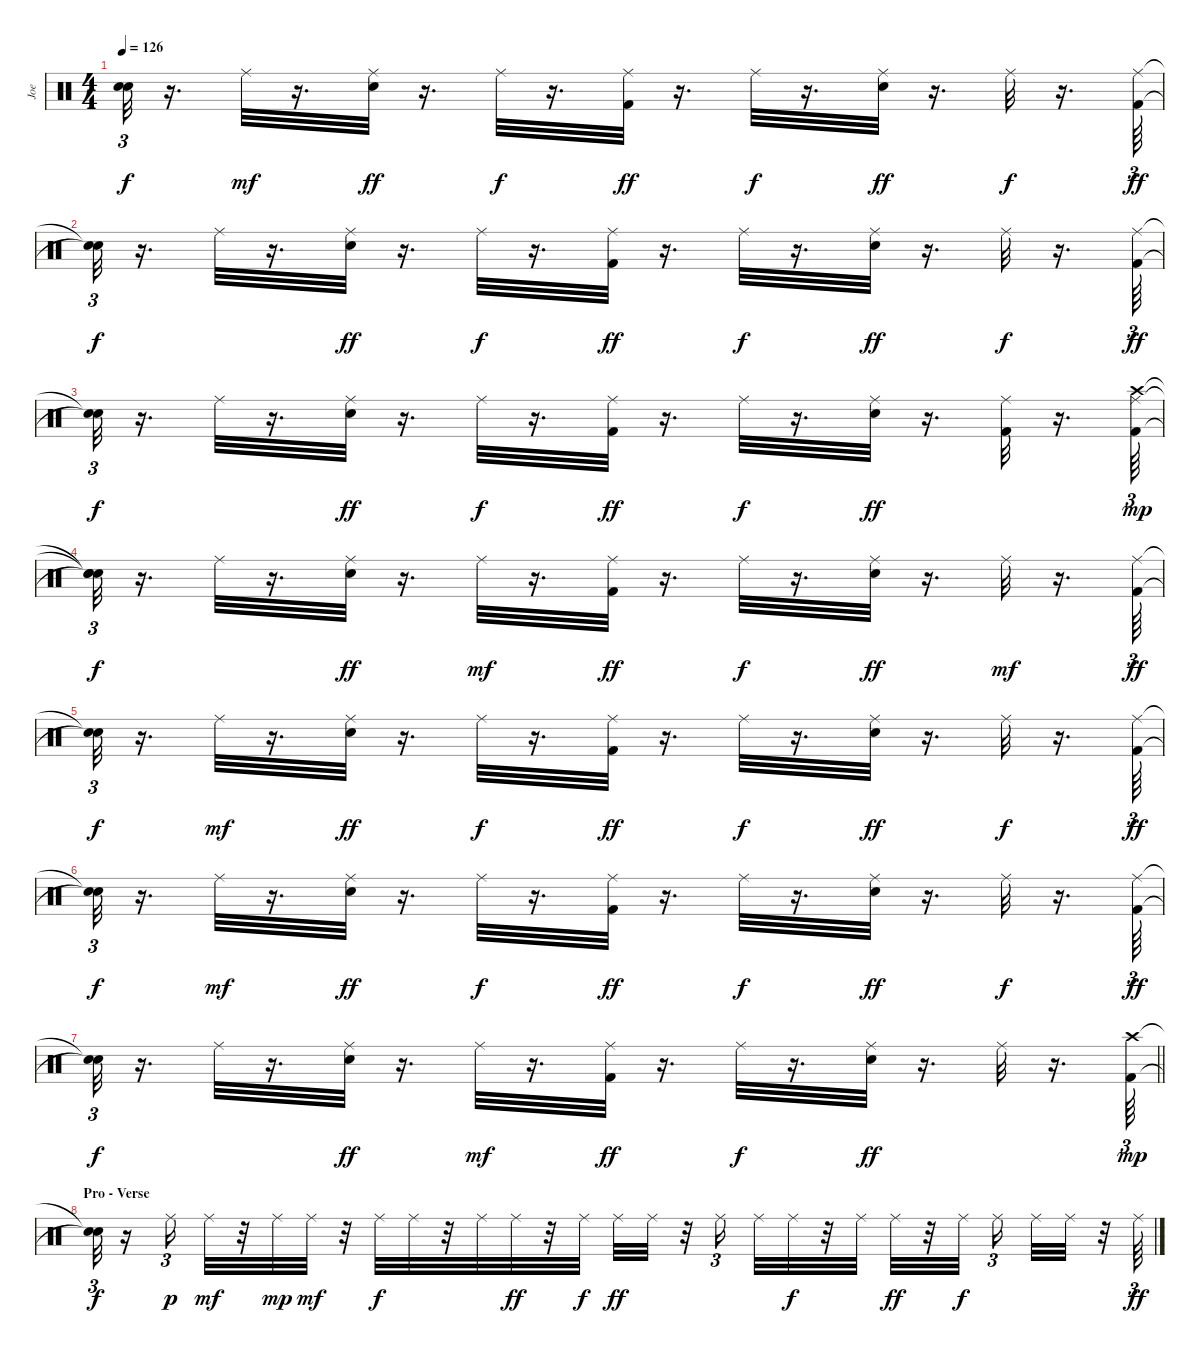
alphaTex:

\track ("Joe" "Joe") {instrument percussion}
\staff {score}
\articulation defaults
\ts (4 4)
\tempo 126
\clef neutral
\ks c
("Snare (hit)"{t} "Snare (hit)"{t}).32{tu (3 2) dy f} r.16{d} "Ride (middle)".32{dy mf} r.16{d} ("Ride (middle)" "Electric Snare (hit)").32{dy ff} r.16{d} "Ride (middle)".32{dy f} r.16{d} ("Ride (middle)" "Kick (hit) 2").32{dy ff} r.16{d} "Ride (middle)".32{dy f} r.16{d} ("Ride (middle)" "Electric Snare (hit)").32{dy ff} r.16{d} "Ride (middle)".32{dy f} r.16{d} ("Kick (hit) 2" "Ride (middle)").64{tu (3 2) dy ff} |
("Snare (hit)"{t} "Snare (hit)"{t}).32{tu (3 2) dy f} r.16{d} "Ride (middle)".32 r.16{d} ("Electric Snare (hit)" "Ride (middle)").32{dy ff} r.16{d} "Ride (middle)".32{dy f} r.16{d} ("Kick (hit) 2" "Ride (middle)").32{dy ff} r.16{d} "Ride (middle)".32{dy f} r.16{d} ("Electric Snare (hit)" "Ride (middle)").32{dy ff} r.16{d} "Ride (middle)".32{dy f} r.16{d} ("Kick (hit) 2" "Ride (middle)").64{tu (3 2) dy ff} |
("Snare (hit)"{t} "Snare (hit)"{t}).32{tu (3 2) dy f} r.16{d} "Ride (middle)".32 r.16{d} ("Ride (middle)" "Electric Snare (hit)").32{dy ff} r.16{d} "Ride (middle)".32{dy f} r.16{d} ("Kick (hit) 2" "Ride (middle)").32{dy ff} r.16{d} "Ride (middle)".32{dy f} r.16{d} ("Electric Snare (hit)" "Ride (middle)").32{dy ff} r.16{d} ("Ride (middle)" "Kick (hit) 2").32 r.16{d} ("Kick (hit) 2" "Ride (middle)" "Crash high (hit)").64{tu (3 2) dy mp} |
("Snare (hit)"{t} "Snare (hit)"{t} "Snare (hit)"{t}).32{tu (3 2) dy f} r.16{d} "Ride (middle)".32 r.16{d} ("Electric Snare (hit)" "Ride (middle)").32{dy ff} r.16{d} "Ride (middle)".32{dy mf} r.16{d} ("Kick (hit) 2" "Ride (middle)").32{dy ff} r.16{d} "Ride (middle)".32{dy f} r.16{d} ("Electric Snare (hit)" "Ride (middle)").32{dy ff} r.16{d} "Ride (middle)".32{dy mf} r.16{d} ("Ride (middle)" "Kick (hit) 2").64{tu (3 2) dy ff} |
("Snare (hit)"{t} "Snare (hit)"{t}).32{tu (3 2) dy f} r.16{d} "Ride (middle)".32{dy mf} r.16{d} ("Ride (middle)" "Electric Snare (hit)").32{dy ff} r.16{d} "Ride (middle)".32{dy f} r.16{d} ("Kick (hit) 2" "Ride (middle)").32{dy ff} r.16{d} "Ride (middle)".32{dy f} r.16{d} ("Electric Snare (hit)" "Ride (middle)").32{dy ff} r.16{d} "Ride (middle)".32{dy f} r.16{d} ("Kick (hit) 2" "Ride (middle)").64{tu (3 2) dy ff} |
("Snare (hit)"{t} "Snare (hit)"{t}).32{tu (3 2) dy f} r.16{d} "Ride (middle)".32{dy mf} r.16{d} ("Electric Snare (hit)" "Ride (middle)").32{dy ff} r.16{d} "Ride (middle)".32{dy f} r.16{d} ("Kick (hit) 2" "Ride (middle)").32{dy ff} r.16{d} "Ride (middle)".32{dy f} r.16{d} ("Electric Snare (hit)" "Ride (middle)").32{dy ff} r.16{d} "Ride (middle)".32{dy f} r.16{d} ("Kick (hit) 2" "Ride (middle)").64{tu (3 2) dy ff} |
\barLineRight lightlight
("Snare (hit)"{t} "Snare (hit)"{t}).32{tu (3 2) dy f} r.16{d} "Ride (middle)".32 r.16{d} ("Electric Snare (hit)" "Ride (middle)").32{dy ff} r.16{d} "Ride (middle)".32{dy mf} r.16{d} ("Kick (hit) 2" "Ride (middle)").32{dy ff} r.16{d} "Ride (middle)".32{dy f} r.16{d} ("Electric Snare (hit)" "Ride (middle)").32{dy ff} r.16{d} "Ride (middle)".32 r.16{d} ("Kick (hit) 2" "Crash high (hit)").64{tu (3 2) dy mp} |
\section ("" "Pro - Verse")
("Snare (hit)"{t} "Snare (hit)"{t}).32{tu (3 2) dy f} r.16 "Ride (middle)".16{tu (3 2) dy p} "Ride (middle)".32{dy mf} r.32 "Ride (middle)".32{dy mp} "Ride (middle)".32{dy mf} r.32 "Ride (middle)".32{dy f} "Ride (middle)".32 r.32 "Ride (middle)".32 "Ride (middle)".32{dy ff} r.32 "Ride (middle)".32{dy f} "Ride (middle)".32{dy ff} "Ride (middle)".32 r.32 "Ride (middle)".16{tu (3 2) beam splitsecondary} "Ride (middle)".32 "Ride (middle)".32{dy f} r.32 "Ride (middle)".32 "Ride (middle)".32{dy ff} r.32 "Ride (middle)".32{dy f beam splitsecondary} "Ride (middle)".16{tu (3 2) beam splitsecondary} "Ride (middle)".32 "Ride (middle)".32 r.32 "Ride (middle)".64{tu (3 2) dy ff}
